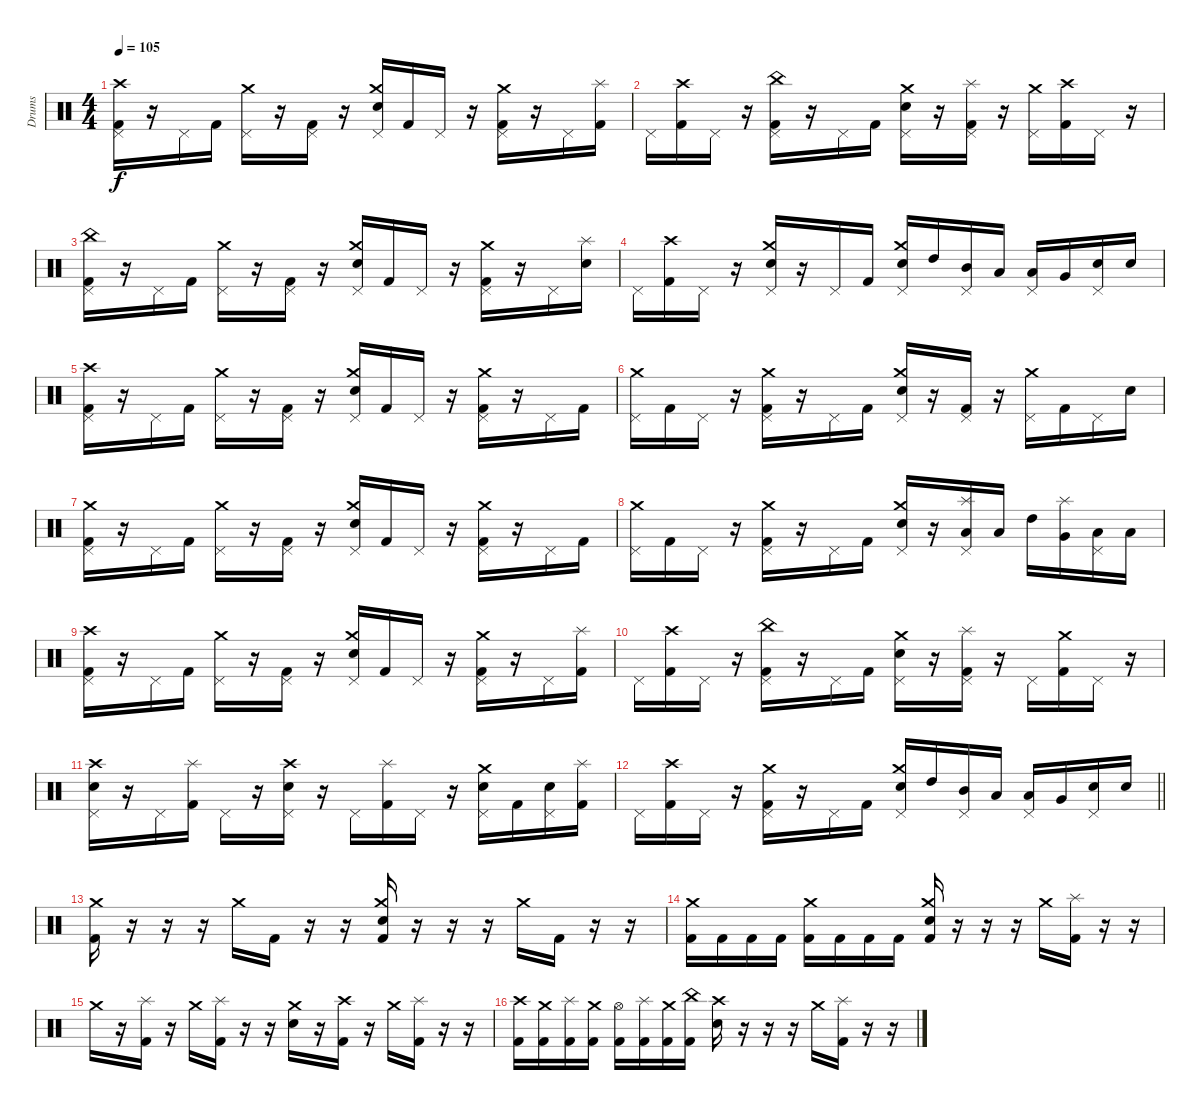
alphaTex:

\track ("Drums" "Drums") {instrument percussion}
\staff {score}
\articulation defaults
\ts (4 4)
\tempo 105
\clef neutral
\ks c
("Crash high (hit)" "Pedal Hi-Hat (hit)" "Kick (hit) 2").16{dy f} r.16 "Pedal Hi-Hat (hit)".16 "Kick (hit) 2".16 ("Crash medium (hit)" "Pedal Hi-Hat (hit)").16 r.16 ("Pedal Hi-Hat (hit)" "Kick (hit) 2").16 r.16 ("Crash medium (hit)" "Pedal Hi-Hat (hit)" "Electric Snare (hit)").16 "Kick (hit) 2".16 "Pedal Hi-Hat (hit)".16 r.16 ("Crash medium (hit)" "Pedal Hi-Hat (hit)" "Kick (hit) 2").16 r.16 "Pedal Hi-Hat (hit)".16 ("Splash (hit)" "Kick (hit) 2").16 |
"Pedal Hi-Hat (hit)".16 ("Crash high (hit)" "Kick (hit) 2").16 "Pedal Hi-Hat (hit)".16 r.16 ("China (hit)" "Pedal Hi-Hat (hit)" "Kick (hit) 2").16 r.16 "Pedal Hi-Hat (hit)".16 "Kick (hit) 2".16 ("Crash medium (hit)" "Pedal Hi-Hat (hit)" "Electric Snare (hit)").16 r.16 ("Splash (hit)" "Pedal Hi-Hat (hit)" "Kick (hit) 2").16 r.16 ("Crash medium (hit)" "Pedal Hi-Hat (hit)").16 ("Crash high (hit)" "Kick (hit) 2").16 "Pedal Hi-Hat (hit)".16 r.16 |
("China (hit)" "Pedal Hi-Hat (hit)" "Kick (hit) 2").16 r.16 "Pedal Hi-Hat (hit)".16 "Kick (hit) 2".16 ("Crash medium (hit)" "Pedal Hi-Hat (hit)").16 r.16 ("Pedal Hi-Hat (hit)" "Kick (hit) 2").16 r.16 ("Crash medium (hit)" "Pedal Hi-Hat (hit)" "Electric Snare (hit)").16 "Kick (hit) 2".16 "Pedal Hi-Hat (hit)".16 r.16 ("Crash medium (hit)" "Pedal Hi-Hat (hit)" "Kick (hit) 2").16 r.16 "Pedal Hi-Hat (hit)".16 ("Splash (hit)" "Electric Snare (hit)").16 |
"Pedal Hi-Hat (hit)".16 ("Crash high (hit)" "Kick (hit) 2").16 "Pedal Hi-Hat (hit)".16 r.16 ("Crash medium (hit)" "Pedal Hi-Hat (hit)" "Electric Snare (hit)").16 r.16 "Pedal Hi-Hat (hit)".16 "Kick (hit) 2".16 ("Crash medium (hit)" "Pedal Hi-Hat (hit)" "Electric Snare (hit)").16 "High Tom (hit)".16 ("Mid Tom (hit)" "Pedal Hi-Hat (hit)").16 "Low Tom (hit)".16 ("Pedal Hi-Hat (hit)" "Low Floor Tom (hit)").16 "Very Low Tom (hit)".16 ("Pedal Hi-Hat (hit)" "Electric Snare (hit)").16 "Electric Snare (hit)".16 |
("Crash high (hit)" "Pedal Hi-Hat (hit)" "Kick (hit) 2").16 r.16 "Pedal Hi-Hat (hit)".16 "Kick (hit) 2".16 ("Crash medium (hit)" "Pedal Hi-Hat (hit)").16 r.16 ("Pedal Hi-Hat (hit)" "Kick (hit) 2").16 r.16 ("Crash medium (hit)" "Pedal Hi-Hat (hit)" "Electric Snare (hit)").16 "Kick (hit) 2".16 "Pedal Hi-Hat (hit)".16 r.16 ("Crash medium (hit)" "Pedal Hi-Hat (hit)" "Kick (hit) 2").16 r.16 "Pedal Hi-Hat (hit)".16 "Kick (hit) 2".16 |
("Crash medium (hit)" "Pedal Hi-Hat (hit)").16 "Kick (hit) 2".16 "Pedal Hi-Hat (hit)".16 r.16 ("Crash medium (hit)" "Pedal Hi-Hat (hit)" "Kick (hit) 2").16 r.16 "Pedal Hi-Hat (hit)".16 "Kick (hit) 2".16 ("Crash medium (hit)" "Pedal Hi-Hat (hit)" "Electric Snare (hit)").16 r.16 ("Pedal Hi-Hat (hit)" "Kick (hit) 2").16 r.16 ("Crash medium (hit)" "Pedal Hi-Hat (hit)").16 "Kick (hit) 2".16 "Pedal Hi-Hat (hit)".16 "Electric Snare (hit)".16 |
("Crash medium (hit)" "Pedal Hi-Hat (hit)" "Kick (hit) 2").16 r.16 "Pedal Hi-Hat (hit)".16 "Kick (hit) 2".16 ("Crash medium (hit)" "Pedal Hi-Hat (hit)").16 r.16 ("Pedal Hi-Hat (hit)" "Kick (hit) 2").16 r.16 ("Crash medium (hit)" "Pedal Hi-Hat (hit)" "Electric Snare (hit)").16 "Kick (hit) 2".16 "Pedal Hi-Hat (hit)".16 r.16 ("Crash medium (hit)" "Pedal Hi-Hat (hit)" "Kick (hit) 2").16 r.16 "Pedal Hi-Hat (hit)".16 "Kick (hit) 2".16 |
("Crash medium (hit)" "Pedal Hi-Hat (hit)").16 "Kick (hit) 2".16 "Pedal Hi-Hat (hit)".16 r.16 ("Crash medium (hit)" "Pedal Hi-Hat (hit)" "Kick (hit) 2").16 r.16 "Pedal Hi-Hat (hit)".16 "Kick (hit) 2".16 ("Crash medium (hit)" "Pedal Hi-Hat (hit)" "Electric Snare (hit)").16 r.16 ("Splash (hit)" "Pedal Hi-Hat (hit)" "Low Floor Tom (hit)").16 "Low Tom (hit)".16 "High Tom (hit)".16 ("Splash (hit)" "Very Low Tom (hit)").16 ("Pedal Hi-Hat (hit)" "Low Tom (hit)").16 "Low Floor Tom (hit)".16 |
("Crash high (hit)" "Pedal Hi-Hat (hit)" "Kick (hit) 2").16 r.16 "Pedal Hi-Hat (hit)".16 "Kick (hit) 2".16 ("Crash medium (hit)" "Pedal Hi-Hat (hit)").16 r.16 ("Pedal Hi-Hat (hit)" "Kick (hit) 2").16 r.16 ("Crash medium (hit)" "Pedal Hi-Hat (hit)" "Electric Snare (hit)").16 "Kick (hit) 2".16 "Pedal Hi-Hat (hit)".16 r.16 ("Crash medium (hit)" "Pedal Hi-Hat (hit)" "Kick (hit) 2").16 r.16 "Pedal Hi-Hat (hit)".16 ("Splash (hit)" "Kick (hit) 2").16 |
"Pedal Hi-Hat (hit)".16 ("Crash high (hit)" "Kick (hit) 2").16 "Pedal Hi-Hat (hit)".16 r.16 ("China (hit)" "Pedal Hi-Hat (hit)" "Kick (hit) 2").16 r.16 "Pedal Hi-Hat (hit)".16 "Kick (hit) 2".16 ("Crash medium (hit)" "Pedal Hi-Hat (hit)" "Electric Snare (hit)").16 r.16 ("Splash (hit)" "Pedal Hi-Hat (hit)" "Kick (hit) 2").16 r.16 "Pedal Hi-Hat (hit)".16 ("Crash medium (hit)" "Kick (hit) 2").16 "Pedal Hi-Hat (hit)".16 r.16 |
("Crash high (hit)" "Pedal Hi-Hat (hit)" "Electric Snare (hit)").16 r.16 "Pedal Hi-Hat (hit)".16 ("Splash (hit)" "Kick (hit) 2").16 "Pedal Hi-Hat (hit)".16 r.16 ("Crash high (hit)" "Pedal Hi-Hat (hit)" "Electric Snare (hit)").16 r.16 "Pedal Hi-Hat (hit)".16 ("Splash (hit)" "Kick (hit) 2").16 "Pedal Hi-Hat (hit)".16 r.16 ("Crash medium (hit)" "Pedal Hi-Hat (hit)" "Electric Snare (hit)").16 "Kick (hit) 2".16 ("Pedal Hi-Hat (hit)" "Electric Snare (hit)").16 ("Splash (hit)" "Kick (hit) 2").16 |
\barLineRight lightlight "Pedal Hi-Hat (hit)".16
("Crash high (hit)" "Kick (hit) 2").16 "Pedal Hi-Hat (hit)".16 r.16 ("Crash medium (hit)" "Pedal Hi-Hat (hit)" "Kick (hit) 2").16 r.16 "Pedal Hi-Hat (hit)".16 "Kick (hit) 2".16 ("Crash medium (hit)" "Pedal Hi-Hat (hit)" "Electric Snare (hit)").16 "High Tom (hit)".16 ("Mid Tom (hit)" "Pedal Hi-Hat (hit)").16 "Low Tom (hit)".16 ("Pedal Hi-Hat (hit)" "Low Floor Tom (hit)").16 "Very Low Tom (hit)".16 ("Pedal Hi-Hat (hit)" "Electric Snare (hit)").16 "Electric Snare (hit)".16 |
\section ("" "")
("Crash medium (hit)" "Kick (hit) 2").16 r.16 r.16 r.16 "Crash medium (hit)".16 "Kick (hit) 2".16 r.16 r.16 ("Crash medium (hit)" "Electric Snare (hit)" "Kick (hit) 2").16 r.16 r.16 r.16 "Crash medium (hit)".16 "Kick (hit) 2".16 r.16 r.16 |
("Crash medium (hit)" "Kick (hit) 2").16 "Kick (hit) 2".16 "Kick (hit) 2".16 "Kick (hit) 2".16 ("Crash medium (hit)" "Kick (hit) 2").16 "Kick (hit) 2".16 "Kick (hit) 2".16 "Kick (hit) 2".16 ("Crash medium (hit)" "Electric Snare (hit)" "Kick (hit) 2").16 r.16 r.16 r.16 "Crash medium (hit)".16 ("Splash (hit)" "Kick (hit) 2").16 r.16 r.16 |
"Crash medium (hit)".16 r.16 ("Splash (hit)" "Kick (hit) 2").16 r.16 "Crash medium (hit)".16 ("Splash (hit)" "Kick (hit) 2").16 r.16 r.16 ("Crash medium (hit)" "Electric Snare (hit)").16 r.16 ("Crash high (hit)" "Kick (hit) 2").16 r.16 "Crash medium (hit)".16 ("Splash (hit)" "Kick (hit) 2").16 r.16 r.16 |
("Crash high (hit)" "Kick (hit) 2").16 ("Crash medium (hit)" "Kick (hit) 2").16 ("Splash (hit)" "Kick (hit) 2").16 ("Crash medium (hit)" "Kick (hit) 2").16 ("Hi-Hat (open)" "Kick (hit) 2").16 ("Splash (hit)" "Kick (hit) 2").16 ("Crash medium (hit)" "Kick (hit) 2").16 ("China (hit)" "Kick (hit) 2").16 ("Crash high (hit)" "Electric Snare (hit)").16 r.16 r.16 r.16 "Crash medium (hit)".16 ("Splash (hit)" "Kick (hit) 2").16 r.16 r.16
